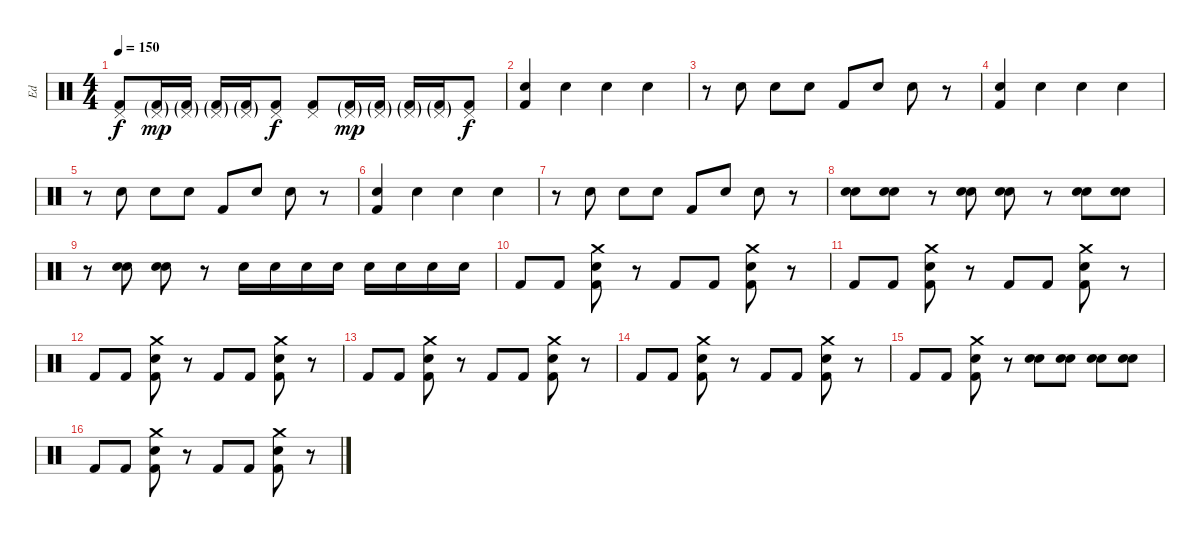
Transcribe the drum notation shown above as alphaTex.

\track ("Ed" "Ed") {instrument percussion}
\staff {score}
\articulation defaults
\ts (4 4)
\tempo 150
\clef neutral
\ks c
("Pedal Hi-Hat (hit)" "Kick (hit) 2").8{dy f} ("Pedal Hi-Hat (hit)"{g} "Kick (hit) 2"{g}).16{dy mp} ("Pedal Hi-Hat (hit)"{g} "Kick (hit) 2"{g}).16 ("Pedal Hi-Hat (hit)"{g} "Kick (hit) 2"{g}).16 ("Pedal Hi-Hat (hit)"{g} "Kick (hit) 2"{g}).16 ("Pedal Hi-Hat (hit)" "Kick (hit) 2").8{dy f} ("Pedal Hi-Hat (hit)" "Kick (hit) 2").8 ("Pedal Hi-Hat (hit)"{g} "Kick (hit) 2"{g}).16{dy mp} ("Pedal Hi-Hat (hit)"{g} "Kick (hit) 2"{g}).16 ("Pedal Hi-Hat (hit)"{g} "Kick (hit) 2"{g}).16 ("Pedal Hi-Hat (hit)"{g} "Kick (hit) 2"{g}).16 ("Pedal Hi-Hat (hit)" "Kick (hit) 2").8{dy f} |
("Hand Clap (hit)" "Kick (hit) 2").4 "Hand Clap (hit)".4 "Hand Clap (hit)".4 "Hand Clap (hit)".4 |
r.8 "Hand Clap (hit)".8 "Hand Clap (hit)".8 "Hand Clap (hit)".8 "Kick (hit) 2".8 "Hand Clap (hit)".8 "Hand Clap (hit)".8 r.8 |
("Hand Clap (hit)" "Kick (hit) 2").4 "Hand Clap (hit)".4 "Hand Clap (hit)".4 "Hand Clap (hit)".4 |
r.8 "Hand Clap (hit)".8 "Hand Clap (hit)".8 "Hand Clap (hit)".8 "Kick (hit) 2".8 "Hand Clap (hit)".8 "Hand Clap (hit)".8 r.8 |
("Hand Clap (hit)" "Kick (hit) 2").4 "Hand Clap (hit)".4 "Hand Clap (hit)".4 "Hand Clap (hit)".4 |
r.8 "Hand Clap (hit)".8 "Hand Clap (hit)".8 "Hand Clap (hit)".8 "Kick (hit) 2".8 "Hand Clap (hit)".8 "Hand Clap (hit)".8 r.8 |
("Snare (hit) 2" "Electric Snare (hit)").8 ("Snare (hit) 2" "Electric Snare (hit)").8 r.8 ("Snare (hit) 2" "Electric Snare (hit)").8 ("Snare (hit) 2" "Electric Snare (hit)").8 r.8 ("Snare (hit) 2" "Electric Snare (hit)").8 ("Snare (hit) 2" "Electric Snare (hit)").8 |
r.8 ("Snare (hit) 2" "Electric Snare (hit)").8 ("Snare (hit) 2" "Electric Snare (hit)").8 r.8 "Snare (hit) 2".16 "Snare (hit) 2".16 "Snare (hit) 2".16 "Snare (hit) 2".16 "Snare (hit) 2".16 "Snare (hit) 2".16 "Snare (hit) 2".16 "Snare (hit) 2".16 |
"Kick (hit) 2".8 "Kick (hit) 2".8 ("Crash medium (hit)" "Electric Snare (hit)" "Kick (hit) 2").8 r.8 "Kick (hit) 2".8 "Kick (hit) 2".8 ("Crash medium (hit)" "Electric Snare (hit)" "Kick (hit) 2").8 r.8 |
"Kick (hit) 2".8 "Kick (hit) 2".8 ("Crash medium (hit)" "Electric Snare (hit)" "Kick (hit) 2").8 r.8 "Kick (hit) 2".8 "Kick (hit) 2".8 ("Crash medium (hit)" "Electric Snare (hit)" "Kick (hit) 2").8 r.8 |
"Kick (hit) 2".8 "Kick (hit) 2".8 ("Crash medium (hit)" "Electric Snare (hit)" "Kick (hit) 2").8 r.8 "Kick (hit) 2".8 "Kick (hit) 2".8 ("Crash medium (hit)" "Electric Snare (hit)" "Kick (hit) 2").8 r.8 |
"Kick (hit) 2".8 "Kick (hit) 2".8 ("Crash medium (hit)" "Electric Snare (hit)" "Kick (hit) 2").8 r.8 "Kick (hit) 2".8 "Kick (hit) 2".8 ("Crash medium (hit)" "Electric Snare (hit)" "Kick (hit) 2").8 r.8 |
"Kick (hit) 2".8 "Kick (hit) 2".8 ("Crash medium (hit)" "Electric Snare (hit)" "Kick (hit) 2").8 r.8 "Kick (hit) 2".8 "Kick (hit) 2".8 ("Crash medium (hit)" "Electric Snare (hit)" "Kick (hit) 2").8 r.8 |
"Kick (hit) 2".8 "Kick (hit) 2".8 ("Crash medium (hit)" "Electric Snare (hit)" "Kick (hit) 2").8 r.8 ("Snare (hit) 2" "Electric Snare (hit)").8 ("Snare (hit) 2" "Electric Snare (hit)").8 ("Snare (hit) 2" "Electric Snare (hit)").8 ("Snare (hit) 2" "Electric Snare (hit)").8 |
"Kick (hit) 2".8 "Kick (hit) 2".8 ("Crash medium (hit)" "Electric Snare (hit)" "Kick (hit) 2").8 r.8 "Kick (hit) 2".8 "Kick (hit) 2".8 ("Crash medium (hit)" "Electric Snare (hit)" "Kick (hit) 2").8 r.8
